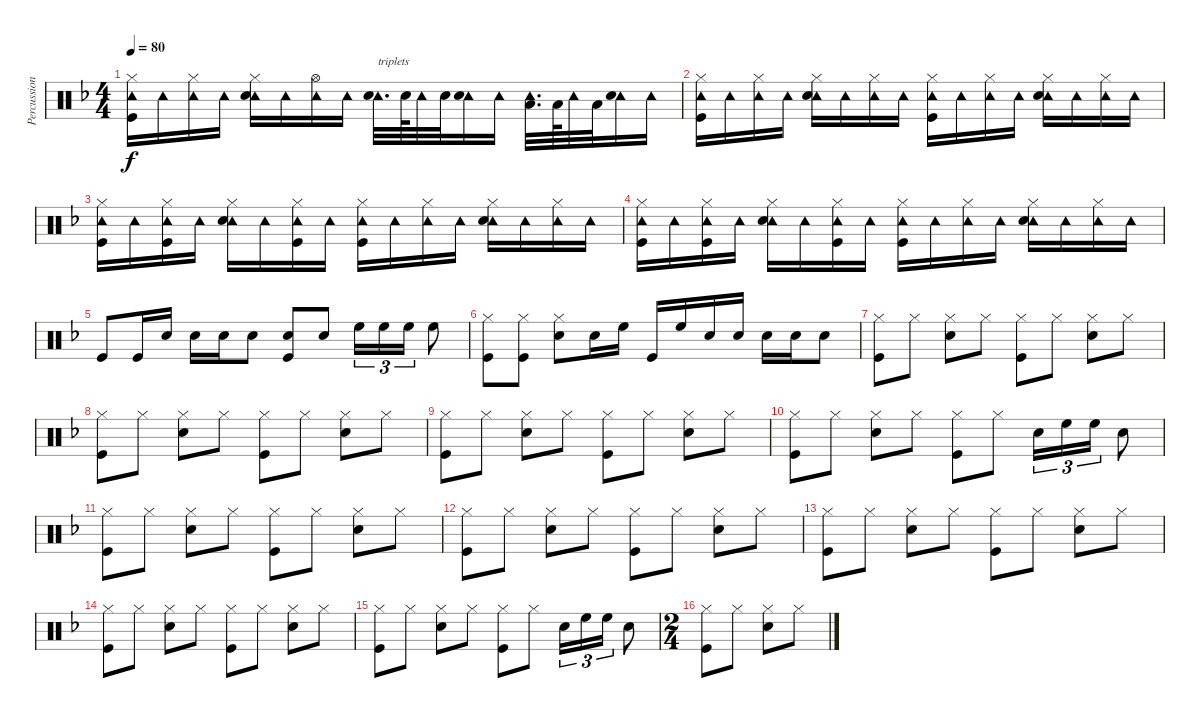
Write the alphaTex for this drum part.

\track ("Percussion" "Percussion") {instrument percussion}
\staff {score}
\articulation defaults
\ts (4 4)
\tempo 80
\clef neutral
\ks f
("Hi-Hat (closed)" "Tambourine (hit)" "Kick (hit)").16{dy f} "Tambourine (hit)".16 ("Hi-Hat (closed)" "Tambourine (hit)").16 "Tambourine (hit)".16 ("Hi-Hat (closed)" "Tambourine (hit)" "Snare (hit) 2").16 "Tambourine (hit)".16 ("Hi-Hat (open)" "Tambourine (hit)").16 "Tambourine (hit)".16 ("Tambourine (hit)" "Snare (hit) 2").32{d txt "triplets"} "Snare (hit) 2".64 "Tambourine (hit)".32 "Snare (hit) 2".32 ("Tambourine (hit)" "Snare (hit) 2").16 "Tambourine (hit)".16 ("Tambourine (hit)" "Low Tom (hit)").32{d} "Low Tom (hit)".64 "Tambourine (hit)".32 "Low Tom (hit)".32 ("Tambourine (hit)" "Snare (hit) 2").16 "Tambourine (hit)".16 |
("Hi-Hat (closed)" "Tambourine (hit)" "Kick (hit)").16 "Tambourine (hit)".16 ("Hi-Hat (closed)" "Tambourine (hit)").16 "Tambourine (hit)".16 ("Hi-Hat (closed)" "Tambourine (hit)" "Snare (hit) 2").16 "Tambourine (hit)".16 ("Hi-Hat (closed)" "Tambourine (hit)").16 "Tambourine (hit)".16 ("Hi-Hat (closed)" "Tambourine (hit)" "Kick (hit)").16 "Tambourine (hit)".16 ("Hi-Hat (closed)" "Tambourine (hit)").16 "Tambourine (hit)".16 ("Hi-Hat (closed)" "Tambourine (hit)" "Snare (hit) 2").16 "Tambourine (hit)".16 ("Hi-Hat (closed)" "Tambourine (hit)").16 "Tambourine (hit)".16 |
("Hi-Hat (closed)" "Tambourine (hit)" "Kick (hit)").16 "Tambourine (hit)".16 ("Hi-Hat (closed)" "Tambourine (hit)" "Kick (hit)").16 "Tambourine (hit)".16 ("Hi-Hat (closed)" "Tambourine (hit)" "Snare (hit) 2").16 "Tambourine (hit)".16 ("Hi-Hat (closed)" "Tambourine (hit)" "Kick (hit)").16 "Tambourine (hit)".16 ("Hi-Hat (closed)" "Tambourine (hit)" "Kick (hit)").16 "Tambourine (hit)".16 ("Hi-Hat (closed)" "Tambourine (hit)").16 "Tambourine (hit)".16 ("Hi-Hat (closed)" "Tambourine (hit)" "Snare (hit) 2").16 "Tambourine (hit)".16 ("Hi-Hat (closed)" "Tambourine (hit)").16 "Tambourine (hit)".16 |
("Hi-Hat (closed)" "Tambourine (hit)" "Kick (hit)").16 "Tambourine (hit)".16 ("Hi-Hat (closed)" "Tambourine (hit)" "Kick (hit)").16 "Tambourine (hit)".16 ("Hi-Hat (closed)" "Tambourine (hit)" "Snare (hit) 2").16 "Tambourine (hit)".16 ("Hi-Hat (closed)" "Tambourine (hit)" "Kick (hit)").16 "Tambourine (hit)".16 ("Hi-Hat (closed)" "Tambourine (hit)" "Kick (hit)").16 "Tambourine (hit)".16 ("Hi-Hat (closed)" "Tambourine (hit)").16 "Tambourine (hit)".16 ("Hi-Hat (closed)" "Tambourine (hit)" "Snare (hit) 2").16 "Tambourine (hit)".16 ("Hi-Hat (closed)" "Tambourine (hit)").16 "Tambourine (hit)".16 |
"Kick (hit)".8 "Kick (hit)".16 "Snare (hit) 2".16 "Snare (hit) 2".16 "Snare (hit) 2".16 "Snare (hit) 2".8 ("Snare (hit) 2" "Kick (hit)").8 "Snare (hit) 2".8 "High Floor Tom (hit)".16{tu (3 2)} "High Floor Tom (hit)".16{tu (3 2)} "High Floor Tom (hit)".16{tu (3 2)} "High Floor Tom (hit)".8 |
("Hi-Hat (closed)" "Kick (hit)").8 ("Hi-Hat (closed)" "Kick (hit)").8 ("Hi-Hat (closed)" "Snare (hit) 2").8 "Snare (hit) 2".16 "High Floor Tom (hit)".16 "Kick (hit)".16 "High Floor Tom (hit)".16 "Snare (hit) 2".16 "Snare (hit) 2".16 "Snare (hit) 2".16 "Snare (hit) 2".16 "Snare (hit) 2".8 |
("Hi-Hat (closed)" "Kick (hit)").8 "Hi-Hat (closed)".8 ("Hi-Hat (closed)" "Snare (hit) 2").8 "Hi-Hat (closed)".8 ("Hi-Hat (closed)" "Kick (hit)").8 "Hi-Hat (closed)".8 ("Hi-Hat (closed)" "Snare (hit) 2").8 "Hi-Hat (closed)".8 |
("Hi-Hat (closed)" "Kick (hit)").8 "Hi-Hat (closed)".8 ("Hi-Hat (closed)" "Snare (hit) 2").8 "Hi-Hat (closed)".8 ("Hi-Hat (closed)" "Kick (hit)").8 "Hi-Hat (closed)".8 ("Hi-Hat (closed)" "Snare (hit) 2").8 "Hi-Hat (closed)".8 |
("Hi-Hat (closed)" "Kick (hit)").8 "Hi-Hat (closed)".8 ("Hi-Hat (closed)" "Snare (hit) 2").8 "Hi-Hat (closed)".8 ("Hi-Hat (closed)" "Kick (hit)").8 "Hi-Hat (closed)".8 ("Hi-Hat (closed)" "Snare (hit) 2").8 "Hi-Hat (closed)".8 |
("Hi-Hat (closed)" "Kick (hit)").8 "Hi-Hat (closed)".8 ("Hi-Hat (closed)" "Snare (hit) 2").8 "Hi-Hat (closed)".8 ("Hi-Hat (closed)" "Kick (hit)").8 "Hi-Hat (closed)".8 "Snare (hit) 2".16{tu (3 2)} "High Floor Tom (hit)".16{tu (3 2)} "High Floor Tom (hit)".16{tu (3 2)} "Snare (hit) 2".8 |
("Hi-Hat (closed)" "Kick (hit)").8 "Hi-Hat (closed)".8 ("Hi-Hat (closed)" "Snare (hit) 2").8 "Hi-Hat (closed)".8 ("Hi-Hat (closed)" "Kick (hit)").8 "Hi-Hat (closed)".8 ("Hi-Hat (closed)" "Snare (hit) 2").8 "Hi-Hat (closed)".8 |
("Hi-Hat (closed)" "Kick (hit)").8 "Hi-Hat (closed)".8 ("Hi-Hat (closed)" "Snare (hit) 2").8 "Hi-Hat (closed)".8 ("Hi-Hat (closed)" "Kick (hit)").8 "Hi-Hat (closed)".8 ("Hi-Hat (closed)" "Snare (hit) 2").8 "Hi-Hat (closed)".8 |
("Hi-Hat (closed)" "Kick (hit)").8 "Hi-Hat (closed)".8 ("Hi-Hat (closed)" "Snare (hit) 2").8 "Hi-Hat (closed)".8 ("Hi-Hat (closed)" "Kick (hit)").8 "Hi-Hat (closed)".8 ("Hi-Hat (closed)" "Snare (hit) 2").8 "Hi-Hat (closed)".8 |
("Hi-Hat (closed)" "Kick (hit)").8 "Hi-Hat (closed)".8 ("Hi-Hat (closed)" "Snare (hit) 2").8 "Hi-Hat (closed)".8 ("Hi-Hat (closed)" "Kick (hit)").8 "Hi-Hat (closed)".8 ("Hi-Hat (closed)" "Snare (hit) 2").8 "Hi-Hat (closed)".8 |
("Hi-Hat (closed)" "Kick (hit)").8 "Hi-Hat (closed)".8 ("Hi-Hat (closed)" "Snare (hit) 2").8 "Hi-Hat (closed)".8 ("Hi-Hat (closed)" "Kick (hit)").8 "Hi-Hat (closed)".8 "Snare (hit) 2".16{tu (3 2)} "High Floor Tom (hit)".16{tu (3 2)} "High Floor Tom (hit)".16{tu (3 2)} "Snare (hit) 2".8 |
\ts (2 4)
("Hi-Hat (closed)" "Kick (hit)").8 "Hi-Hat (closed)".8 ("Hi-Hat (closed)" "Snare (hit) 2").8 "Hi-Hat (closed)".8
